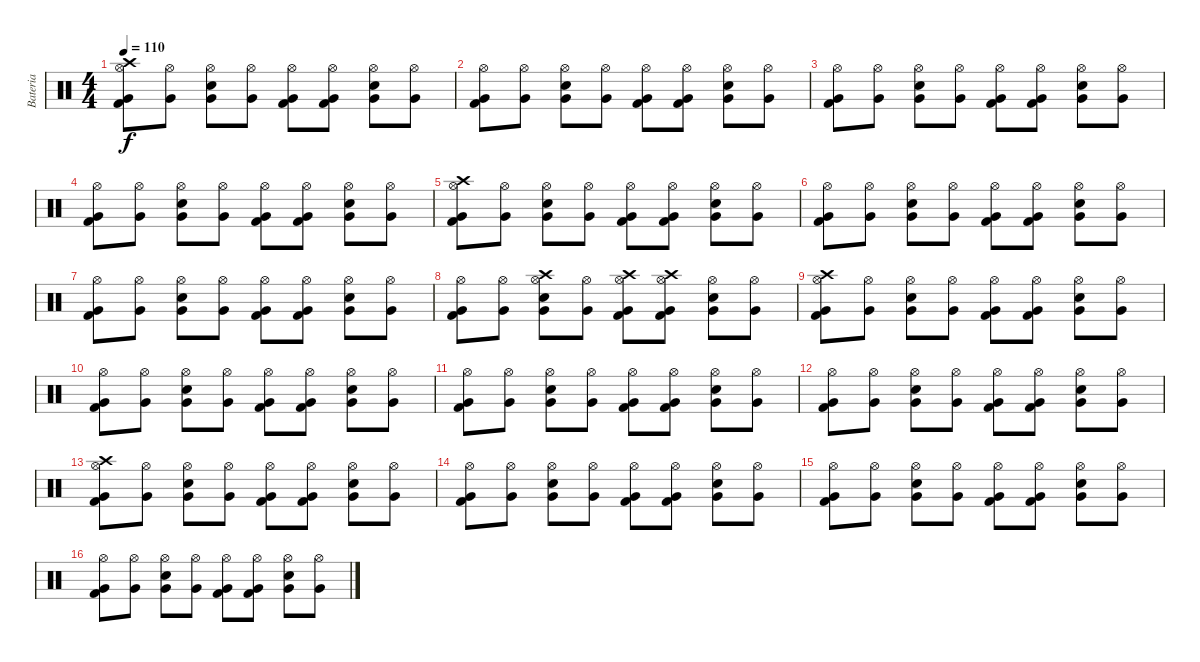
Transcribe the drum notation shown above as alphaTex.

\track ("Bateria" "Bateria") {instrument percussion}
\staff {score}
\articulation defaults
\ts (4 4)
\tempo 110
\clef neutral
\ks c
("Crash high (hit)" "Hi-Hat (open)" "Very Low Tom (hit)" "Kick (hit) 2").8{dy f} ("Hi-Hat (open)" "Very Low Tom (hit)").8 ("Electric Snare (hit)" "Hi-Hat (open)" "Very Low Tom (hit)").8 ("Hi-Hat (open)" "Very Low Tom (hit)").8 ("Hi-Hat (open)" "Very Low Tom (hit)" "Kick (hit) 2").8 ("Hi-Hat (open)" "Very Low Tom (hit)" "Kick (hit) 2").8 ("Electric Snare (hit)" "Hi-Hat (open)" "Very Low Tom (hit)").8 ("Hi-Hat (open)" "Very Low Tom (hit)").8 |
("Hi-Hat (open)" "Very Low Tom (hit)" "Kick (hit) 2").8 ("Hi-Hat (open)" "Very Low Tom (hit)").8 ("Electric Snare (hit)" "Hi-Hat (open)" "Very Low Tom (hit)").8 ("Hi-Hat (open)" "Very Low Tom (hit)").8 ("Hi-Hat (open)" "Very Low Tom (hit)" "Kick (hit) 2").8 ("Hi-Hat (open)" "Very Low Tom (hit)" "Kick (hit) 2").8 ("Electric Snare (hit)" "Hi-Hat (open)" "Very Low Tom (hit)").8 ("Hi-Hat (open)" "Very Low Tom (hit)").8 |
("Hi-Hat (open)" "Very Low Tom (hit)" "Kick (hit) 2").8 ("Hi-Hat (open)" "Very Low Tom (hit)").8 ("Electric Snare (hit)" "Hi-Hat (open)" "Very Low Tom (hit)").8 ("Hi-Hat (open)" "Very Low Tom (hit)").8 ("Hi-Hat (open)" "Very Low Tom (hit)" "Kick (hit) 2").8 ("Hi-Hat (open)" "Very Low Tom (hit)" "Kick (hit) 2").8 ("Electric Snare (hit)" "Hi-Hat (open)" "Very Low Tom (hit)").8 ("Hi-Hat (open)" "Very Low Tom (hit)").8 |
("Hi-Hat (open)" "Very Low Tom (hit)" "Kick (hit) 2").8 ("Hi-Hat (open)" "Very Low Tom (hit)").8 ("Electric Snare (hit)" "Hi-Hat (open)" "Very Low Tom (hit)").8 ("Hi-Hat (open)" "Very Low Tom (hit)").8 ("Hi-Hat (open)" "Very Low Tom (hit)" "Kick (hit) 2").8 ("Hi-Hat (open)" "Very Low Tom (hit)" "Kick (hit) 2").8 ("Electric Snare (hit)" "Hi-Hat (open)" "Very Low Tom (hit)").8 ("Hi-Hat (open)" "Very Low Tom (hit)").8 |
("Crash high (hit)" "Hi-Hat (open)" "Very Low Tom (hit)" "Kick (hit) 2").8 ("Hi-Hat (open)" "Very Low Tom (hit)").8 ("Electric Snare (hit)" "Hi-Hat (open)" "Very Low Tom (hit)").8 ("Hi-Hat (open)" "Very Low Tom (hit)").8 ("Hi-Hat (open)" "Very Low Tom (hit)" "Kick (hit) 2").8 ("Hi-Hat (open)" "Very Low Tom (hit)" "Kick (hit) 2").8 ("Electric Snare (hit)" "Hi-Hat (open)" "Very Low Tom (hit)").8 ("Hi-Hat (open)" "Very Low Tom (hit)").8 |
("Hi-Hat (open)" "Very Low Tom (hit)" "Kick (hit) 2").8 ("Hi-Hat (open)" "Very Low Tom (hit)").8 ("Electric Snare (hit)" "Hi-Hat (open)" "Very Low Tom (hit)").8 ("Hi-Hat (open)" "Very Low Tom (hit)").8 ("Hi-Hat (open)" "Very Low Tom (hit)" "Kick (hit) 2").8 ("Hi-Hat (open)" "Very Low Tom (hit)" "Kick (hit) 2").8 ("Electric Snare (hit)" "Hi-Hat (open)" "Very Low Tom (hit)").8 ("Hi-Hat (open)" "Very Low Tom (hit)").8 |
("Hi-Hat (open)" "Very Low Tom (hit)" "Kick (hit) 2").8 ("Hi-Hat (open)" "Very Low Tom (hit)").8 ("Electric Snare (hit)" "Hi-Hat (open)" "Very Low Tom (hit)").8 ("Hi-Hat (open)" "Very Low Tom (hit)").8 ("Hi-Hat (open)" "Very Low Tom (hit)" "Kick (hit) 2").8 ("Hi-Hat (open)" "Very Low Tom (hit)" "Kick (hit) 2").8 ("Electric Snare (hit)" "Hi-Hat (open)" "Very Low Tom (hit)").8 ("Hi-Hat (open)" "Very Low Tom (hit)").8 |
("Hi-Hat (open)" "Very Low Tom (hit)" "Kick (hit) 2").8 ("Hi-Hat (open)" "Very Low Tom (hit)").8 ("Crash high (hit)" "Electric Snare (hit)" "Hi-Hat (open)" "Very Low Tom (hit)").8 ("Hi-Hat (open)" "Very Low Tom (hit)").8 ("Crash high (hit)" "Hi-Hat (open)" "Very Low Tom (hit)" "Kick (hit) 2").8 ("Crash high (hit)" "Hi-Hat (open)" "Very Low Tom (hit)" "Kick (hit) 2").8 ("Electric Snare (hit)" "Hi-Hat (open)" "Very Low Tom (hit)").8 ("Hi-Hat (open)" "Very Low Tom (hit)").8 |
("Crash high (hit)" "Hi-Hat (open)" "Very Low Tom (hit)" "Kick (hit) 2").8 ("Hi-Hat (open)" "Very Low Tom (hit)").8 ("Electric Snare (hit)" "Hi-Hat (open)" "Very Low Tom (hit)").8 ("Hi-Hat (open)" "Very Low Tom (hit)").8 ("Hi-Hat (open)" "Very Low Tom (hit)" "Kick (hit) 2").8 ("Hi-Hat (open)" "Very Low Tom (hit)" "Kick (hit) 2").8 ("Electric Snare (hit)" "Hi-Hat (open)" "Very Low Tom (hit)").8 ("Hi-Hat (open)" "Very Low Tom (hit)").8 |
("Hi-Hat (open)" "Very Low Tom (hit)" "Kick (hit) 2").8 ("Hi-Hat (open)" "Very Low Tom (hit)").8 ("Electric Snare (hit)" "Hi-Hat (open)" "Very Low Tom (hit)").8 ("Hi-Hat (open)" "Very Low Tom (hit)").8 ("Hi-Hat (open)" "Very Low Tom (hit)" "Kick (hit) 2").8 ("Hi-Hat (open)" "Very Low Tom (hit)" "Kick (hit) 2").8 ("Electric Snare (hit)" "Hi-Hat (open)" "Very Low Tom (hit)").8 ("Hi-Hat (open)" "Very Low Tom (hit)").8 |
("Hi-Hat (open)" "Very Low Tom (hit)" "Kick (hit) 2").8 ("Hi-Hat (open)" "Very Low Tom (hit)").8 ("Electric Snare (hit)" "Hi-Hat (open)" "Very Low Tom (hit)").8 ("Hi-Hat (open)" "Very Low Tom (hit)").8 ("Hi-Hat (open)" "Very Low Tom (hit)" "Kick (hit) 2").8 ("Hi-Hat (open)" "Very Low Tom (hit)" "Kick (hit) 2").8 ("Electric Snare (hit)" "Hi-Hat (open)" "Very Low Tom (hit)").8 ("Hi-Hat (open)" "Very Low Tom (hit)").8 |
("Hi-Hat (open)" "Very Low Tom (hit)" "Kick (hit) 2").8 ("Hi-Hat (open)" "Very Low Tom (hit)").8 ("Electric Snare (hit)" "Hi-Hat (open)" "Very Low Tom (hit)").8 ("Hi-Hat (open)" "Very Low Tom (hit)").8 ("Hi-Hat (open)" "Very Low Tom (hit)" "Kick (hit) 2").8 ("Hi-Hat (open)" "Very Low Tom (hit)" "Kick (hit) 2").8 ("Electric Snare (hit)" "Hi-Hat (open)" "Very Low Tom (hit)").8 ("Hi-Hat (open)" "Very Low Tom (hit)").8 |
("Crash high (hit)" "Hi-Hat (open)" "Very Low Tom (hit)" "Kick (hit) 2").8 ("Hi-Hat (open)" "Very Low Tom (hit)").8 ("Electric Snare (hit)" "Hi-Hat (open)" "Very Low Tom (hit)").8 ("Hi-Hat (open)" "Very Low Tom (hit)").8 ("Hi-Hat (open)" "Very Low Tom (hit)" "Kick (hit) 2").8 ("Hi-Hat (open)" "Very Low Tom (hit)" "Kick (hit) 2").8 ("Electric Snare (hit)" "Hi-Hat (open)" "Very Low Tom (hit)").8 ("Hi-Hat (open)" "Very Low Tom (hit)").8 |
("Hi-Hat (open)" "Very Low Tom (hit)" "Kick (hit) 2").8 ("Hi-Hat (open)" "Very Low Tom (hit)").8 ("Electric Snare (hit)" "Hi-Hat (open)" "Very Low Tom (hit)").8 ("Hi-Hat (open)" "Very Low Tom (hit)").8 ("Hi-Hat (open)" "Very Low Tom (hit)" "Kick (hit) 2").8 ("Hi-Hat (open)" "Very Low Tom (hit)" "Kick (hit) 2").8 ("Electric Snare (hit)" "Hi-Hat (open)" "Very Low Tom (hit)").8 ("Hi-Hat (open)" "Very Low Tom (hit)").8 |
("Hi-Hat (open)" "Very Low Tom (hit)" "Kick (hit) 2").8 ("Hi-Hat (open)" "Very Low Tom (hit)").8 ("Electric Snare (hit)" "Hi-Hat (open)" "Very Low Tom (hit)").8 ("Hi-Hat (open)" "Very Low Tom (hit)").8 ("Hi-Hat (open)" "Very Low Tom (hit)" "Kick (hit) 2").8 ("Hi-Hat (open)" "Very Low Tom (hit)" "Kick (hit) 2").8 ("Electric Snare (hit)" "Hi-Hat (open)" "Very Low Tom (hit)").8 ("Hi-Hat (open)" "Very Low Tom (hit)").8 |
("Hi-Hat (open)" "Very Low Tom (hit)" "Kick (hit) 2").8 ("Hi-Hat (open)" "Very Low Tom (hit)").8 ("Electric Snare (hit)" "Hi-Hat (open)" "Very Low Tom (hit)").8 ("Hi-Hat (open)" "Very Low Tom (hit)").8 ("Hi-Hat (open)" "Very Low Tom (hit)" "Kick (hit) 2").8 ("Hi-Hat (open)" "Very Low Tom (hit)" "Kick (hit) 2").8 ("Electric Snare (hit)" "Hi-Hat (open)" "Very Low Tom (hit)").8 ("Hi-Hat (open)" "Very Low Tom (hit)").8
